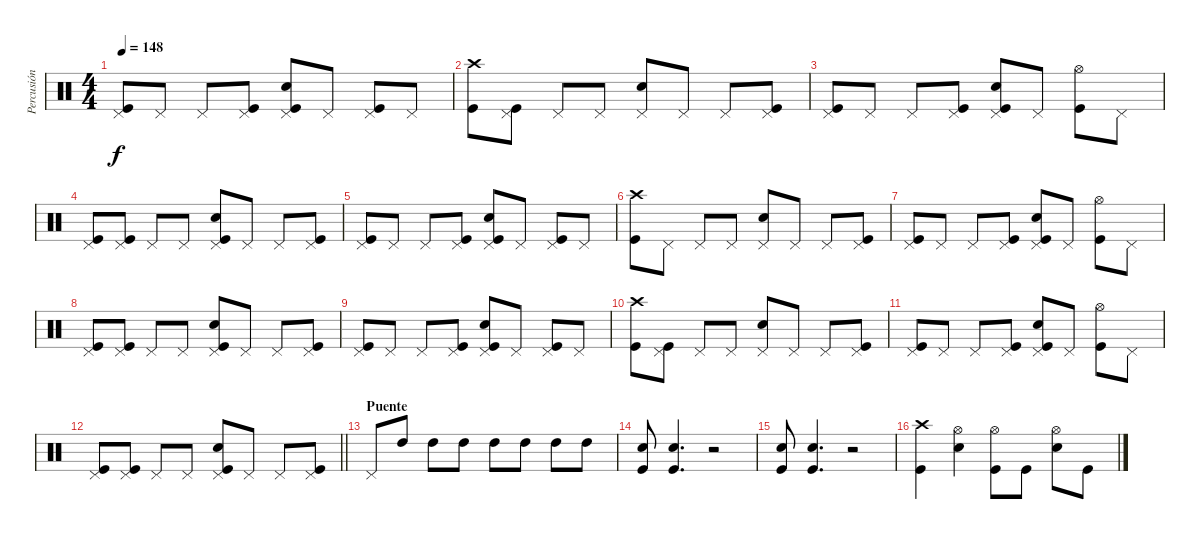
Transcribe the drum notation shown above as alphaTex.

\track ("Percusión" "Percusión") {instrument percussion}
\staff {score}
\articulation defaults
\ts (4 4)
\tempo 148
\clef neutral
\ks c
("Pedal Hi-Hat (hit)" "Kick (hit)").8{dy f} "Pedal Hi-Hat (hit)".8 "Pedal Hi-Hat (hit)".8 ("Pedal Hi-Hat (hit)" "Kick (hit)").8 ("Pedal Hi-Hat (hit)" "Electric Snare (hit)" "Kick (hit)").8 "Pedal Hi-Hat (hit)".8 ("Pedal Hi-Hat (hit)" "Kick (hit)").8 "Pedal Hi-Hat (hit)".8 |
("Crash high (hit)" "Kick (hit)").8{volume 13} ("Pedal Hi-Hat (hit)" "Kick (hit)").8 "Pedal Hi-Hat (hit)".8 "Pedal Hi-Hat (hit)".8 ("Pedal Hi-Hat (hit)" "Electric Snare (hit)").8 "Pedal Hi-Hat (hit)".8 "Pedal Hi-Hat (hit)".8 ("Pedal Hi-Hat (hit)" "Kick (hit)").8 |
("Pedal Hi-Hat (hit)" "Kick (hit)").8 "Pedal Hi-Hat (hit)".8 "Pedal Hi-Hat (hit)".8 ("Pedal Hi-Hat (hit)" "Kick (hit)").8 ("Pedal Hi-Hat (hit)" "Electric Snare (hit)" "Kick (hit)").8 "Pedal Hi-Hat (hit)".8 ("Hi-Hat (open)" "Kick (hit)").8 "Pedal Hi-Hat (hit)".8 |
("Pedal Hi-Hat (hit)" "Kick (hit)").8 ("Pedal Hi-Hat (hit)" "Kick (hit)").8 "Pedal Hi-Hat (hit)".8 "Pedal Hi-Hat (hit)".8 ("Pedal Hi-Hat (hit)" "Electric Snare (hit)" "Kick (hit)").8 "Pedal Hi-Hat (hit)".8 "Pedal Hi-Hat (hit)".8 ("Pedal Hi-Hat (hit)" "Kick (hit)").8 |
("Pedal Hi-Hat (hit)" "Kick (hit)").8 "Pedal Hi-Hat (hit)".8 "Pedal Hi-Hat (hit)".8 ("Pedal Hi-Hat (hit)" "Kick (hit)").8 ("Pedal Hi-Hat (hit)" "Electric Snare (hit)" "Kick (hit)").8 "Pedal Hi-Hat (hit)".8 ("Pedal Hi-Hat (hit)" "Kick (hit)").8 "Pedal Hi-Hat (hit)".8 |
("Crash high (hit)" "Kick (hit)").8{volume 13} "Pedal Hi-Hat (hit)".8 "Pedal Hi-Hat (hit)".8 "Pedal Hi-Hat (hit)".8 ("Pedal Hi-Hat (hit)" "Electric Snare (hit)").8 "Pedal Hi-Hat (hit)".8 "Pedal Hi-Hat (hit)".8 ("Pedal Hi-Hat (hit)" "Kick (hit)").8 |
("Pedal Hi-Hat (hit)" "Kick (hit)").8 "Pedal Hi-Hat (hit)".8 "Pedal Hi-Hat (hit)".8 ("Pedal Hi-Hat (hit)" "Kick (hit)").8 ("Pedal Hi-Hat (hit)" "Electric Snare (hit)" "Kick (hit)").8 "Pedal Hi-Hat (hit)".8 ("Hi-Hat (open)" "Kick (hit)").8 "Pedal Hi-Hat (hit)".8 |
("Pedal Hi-Hat (hit)" "Kick (hit)").8 ("Pedal Hi-Hat (hit)" "Kick (hit)").8 "Pedal Hi-Hat (hit)".8 "Pedal Hi-Hat (hit)".8 ("Pedal Hi-Hat (hit)" "Electric Snare (hit)" "Kick (hit)").8 "Pedal Hi-Hat (hit)".8 "Pedal Hi-Hat (hit)".8 ("Pedal Hi-Hat (hit)" "Kick (hit)").8 |
("Pedal Hi-Hat (hit)" "Kick (hit)").8 "Pedal Hi-Hat (hit)".8 "Pedal Hi-Hat (hit)".8 ("Pedal Hi-Hat (hit)" "Kick (hit)").8 ("Pedal Hi-Hat (hit)" "Electric Snare (hit)" "Kick (hit)").8 "Pedal Hi-Hat (hit)".8 ("Pedal Hi-Hat (hit)" "Kick (hit)").8 "Pedal Hi-Hat (hit)".8 |
("Crash high (hit)" "Kick (hit)").8{volume 13} ("Pedal Hi-Hat (hit)" "Kick (hit)").8 "Pedal Hi-Hat (hit)".8 "Pedal Hi-Hat (hit)".8 ("Pedal Hi-Hat (hit)" "Electric Snare (hit)").8 "Pedal Hi-Hat (hit)".8 "Pedal Hi-Hat (hit)".8 ("Pedal Hi-Hat (hit)" "Kick (hit)").8 |
("Pedal Hi-Hat (hit)" "Kick (hit)").8 "Pedal Hi-Hat (hit)".8 "Pedal Hi-Hat (hit)".8 ("Pedal Hi-Hat (hit)" "Kick (hit)").8 ("Pedal Hi-Hat (hit)" "Electric Snare (hit)" "Kick (hit)").8 "Pedal Hi-Hat (hit)".8 ("Hi-Hat (open)" "Kick (hit)").8 "Pedal Hi-Hat (hit)".8 |
\barLineRight lightlight
("Pedal Hi-Hat (hit)" "Kick (hit)").8 ("Pedal Hi-Hat (hit)" "Kick (hit)").8 "Pedal Hi-Hat (hit)".8 "Pedal Hi-Hat (hit)".8 ("Pedal Hi-Hat (hit)" "Electric Snare (hit)" "Kick (hit)").8 "Pedal Hi-Hat (hit)".8 "Pedal Hi-Hat (hit)".8 ("Pedal Hi-Hat (hit)" "Kick (hit)").8 |
\section ("" "Puente")
"Pedal Hi-Hat (hit)".8 "High Tom (hit)".8 "High Tom (hit)".8 "High Tom (hit)".8 "High Tom (hit)".8 "High Tom (hit)".8 "High Tom (hit)".8 "High Tom (hit)".8 |
("Electric Snare (hit)" "Kick (hit)").8 ("Electric Snare (hit)" "Kick (hit)").4{d} r.2 |
("Electric Snare (hit)" "Kick (hit)").8 ("Electric Snare (hit)" "Kick (hit)").4{d} r.2 |
("Crash high (hit)" "Kick (hit)").4 ("Hi-Hat (open)" "Electric Snare (hit)").4 ("Hi-Hat (open)" "Kick (hit)").8 "Kick (hit)".8 ("Hi-Hat (open)" "Electric Snare (hit)").8 "Kick (hit)".8
